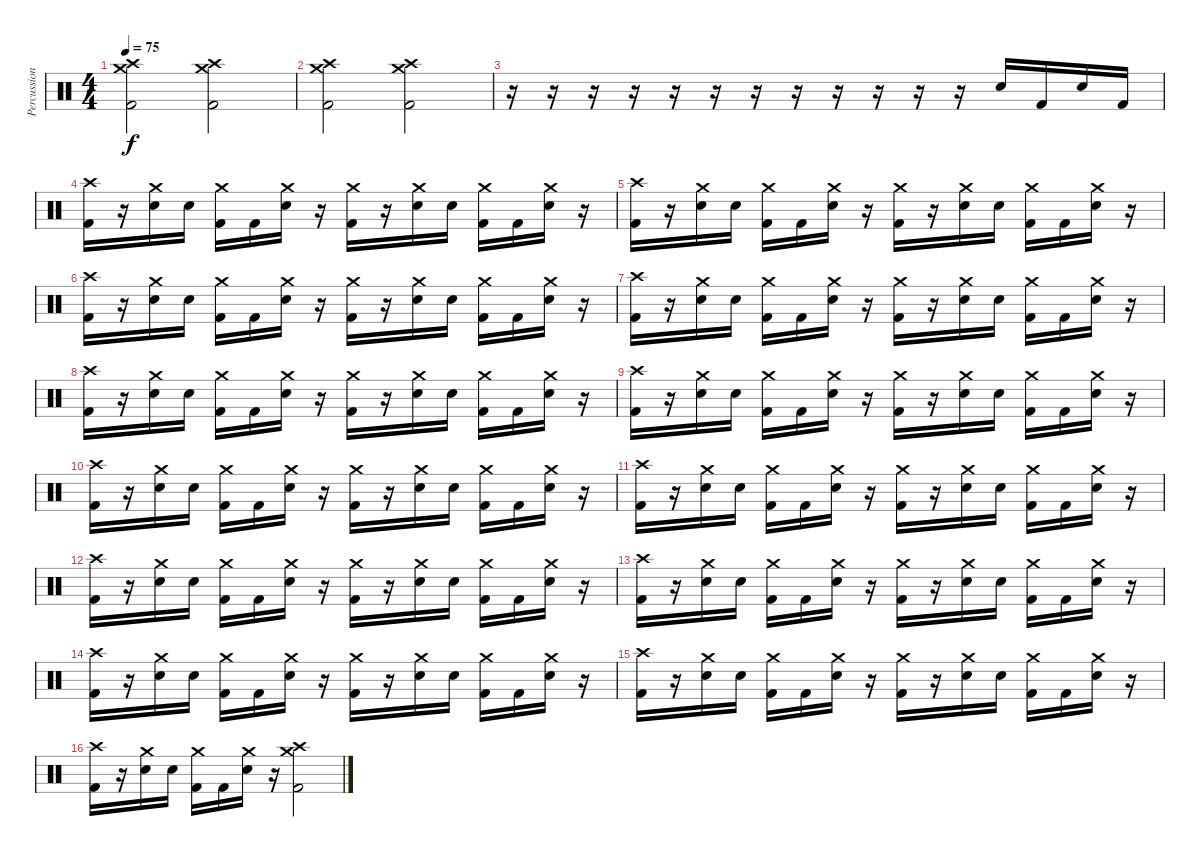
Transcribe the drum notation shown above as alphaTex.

\track ("Percussioni" "Percussion") {instrument percussion}
\staff {score}
\articulation defaults
\ts (4 4)
\tempo 75
\clef neutral
\ks c
("Kick (hit) 2" "Crash high (hit)" "Crash medium (hit)").2{dy f} ("Kick (hit) 2" "Crash high (hit)" "Crash medium (hit)").2 |
("Kick (hit) 2" "Crash high (hit)" "Crash medium (hit)").2 ("Kick (hit) 2" "Crash high (hit)" "Crash medium (hit)").2 |
r.16 r.16 r.16 r.16 r.16 r.16 r.16 r.16 r.16 r.16 r.16 r.16 "Electric Snare (hit)".16 "Kick (hit) 2".16 "Electric Snare (hit)".16 "Kick (hit) 2".16 |
("Crash high (hit)" "Kick (hit) 2").16 r.16 ("Crash medium (hit)" "Electric Snare (hit)").16 "Electric Snare (hit)".16 ("Crash medium (hit)" "Kick (hit) 2").16 "Kick (hit) 2".16 ("Crash medium (hit)" "Electric Snare (hit)").16 r.16 ("Crash medium (hit)" "Kick (hit) 2").16 r.16 ("Crash medium (hit)" "Electric Snare (hit)").16 "Electric Snare (hit)".16 ("Crash medium (hit)" "Kick (hit) 2").16 "Kick (hit) 2".16 ("Crash medium (hit)" "Electric Snare (hit)").16 r.16 |
("Crash high (hit)" "Kick (hit) 2").16 r.16 ("Crash medium (hit)" "Electric Snare (hit)").16 "Electric Snare (hit)".16 ("Crash medium (hit)" "Kick (hit) 2").16 "Kick (hit) 2".16 ("Crash medium (hit)" "Electric Snare (hit)").16 r.16 ("Crash medium (hit)" "Kick (hit) 2").16 r.16 ("Crash medium (hit)" "Electric Snare (hit)").16 "Electric Snare (hit)".16 ("Crash medium (hit)" "Kick (hit) 2").16 "Kick (hit) 2".16 ("Crash medium (hit)" "Electric Snare (hit)").16 r.16 |
("Crash high (hit)" "Kick (hit) 2").16 r.16 ("Crash medium (hit)" "Electric Snare (hit)").16 "Electric Snare (hit)".16 ("Crash medium (hit)" "Kick (hit) 2").16 "Kick (hit) 2".16 ("Crash medium (hit)" "Electric Snare (hit)").16 r.16 ("Crash medium (hit)" "Kick (hit) 2").16 r.16 ("Crash medium (hit)" "Electric Snare (hit)").16 "Electric Snare (hit)".16 ("Crash medium (hit)" "Kick (hit) 2").16 "Kick (hit) 2".16 ("Crash medium (hit)" "Electric Snare (hit)").16 r.16 |
("Crash high (hit)" "Kick (hit) 2").16 r.16 ("Crash medium (hit)" "Electric Snare (hit)").16 "Electric Snare (hit)".16 ("Crash medium (hit)" "Kick (hit) 2").16 "Kick (hit) 2".16 ("Crash medium (hit)" "Electric Snare (hit)").16 r.16 ("Crash medium (hit)" "Kick (hit) 2").16 r.16 ("Crash medium (hit)" "Electric Snare (hit)").16 "Electric Snare (hit)".16 ("Crash medium (hit)" "Kick (hit) 2").16 "Kick (hit) 2".16 ("Crash medium (hit)" "Electric Snare (hit)").16 r.16 |
("Crash high (hit)" "Kick (hit) 2").16 r.16 ("Crash medium (hit)" "Electric Snare (hit)").16 "Electric Snare (hit)".16 ("Crash medium (hit)" "Kick (hit) 2").16 "Kick (hit) 2".16 ("Crash medium (hit)" "Electric Snare (hit)").16 r.16 ("Crash medium (hit)" "Kick (hit) 2").16 r.16 ("Crash medium (hit)" "Electric Snare (hit)").16 "Electric Snare (hit)".16 ("Crash medium (hit)" "Kick (hit) 2").16 "Kick (hit) 2".16 ("Crash medium (hit)" "Electric Snare (hit)").16 r.16 |
("Crash high (hit)" "Kick (hit) 2").16 r.16 ("Crash medium (hit)" "Electric Snare (hit)").16 "Electric Snare (hit)".16 ("Crash medium (hit)" "Kick (hit) 2").16 "Kick (hit) 2".16 ("Crash medium (hit)" "Electric Snare (hit)").16 r.16 ("Crash medium (hit)" "Kick (hit) 2").16 r.16 ("Crash medium (hit)" "Electric Snare (hit)").16 "Electric Snare (hit)".16 ("Crash medium (hit)" "Kick (hit) 2").16 "Kick (hit) 2".16 ("Crash medium (hit)" "Electric Snare (hit)").16 r.16 |
("Crash high (hit)" "Kick (hit) 2").16 r.16 ("Crash medium (hit)" "Electric Snare (hit)").16 "Electric Snare (hit)".16 ("Crash medium (hit)" "Kick (hit) 2").16 "Kick (hit) 2".16 ("Crash medium (hit)" "Electric Snare (hit)").16 r.16 ("Crash medium (hit)" "Kick (hit) 2").16 r.16 ("Crash medium (hit)" "Electric Snare (hit)").16 "Electric Snare (hit)".16 ("Crash medium (hit)" "Kick (hit) 2").16 "Kick (hit) 2".16 ("Crash medium (hit)" "Electric Snare (hit)").16 r.16 |
("Crash high (hit)" "Kick (hit) 2").16 r.16 ("Crash medium (hit)" "Electric Snare (hit)").16 "Electric Snare (hit)".16 ("Crash medium (hit)" "Kick (hit) 2").16 "Kick (hit) 2".16 ("Crash medium (hit)" "Electric Snare (hit)").16 r.16 ("Crash medium (hit)" "Kick (hit) 2").16 r.16 ("Crash medium (hit)" "Electric Snare (hit)").16 "Electric Snare (hit)".16 ("Crash medium (hit)" "Kick (hit) 2").16 "Kick (hit) 2".16 ("Crash medium (hit)" "Electric Snare (hit)").16 r.16 |
("Crash high (hit)" "Kick (hit) 2").16 r.16 ("Crash medium (hit)" "Electric Snare (hit)").16 "Electric Snare (hit)".16 ("Crash medium (hit)" "Kick (hit) 2").16 "Kick (hit) 2".16 ("Crash medium (hit)" "Electric Snare (hit)").16 r.16 ("Crash medium (hit)" "Kick (hit) 2").16 r.16 ("Crash medium (hit)" "Electric Snare (hit)").16 "Electric Snare (hit)".16 ("Crash medium (hit)" "Kick (hit) 2").16 "Kick (hit) 2".16 ("Crash medium (hit)" "Electric Snare (hit)").16 r.16 |
("Crash high (hit)" "Kick (hit) 2").16 r.16 ("Crash medium (hit)" "Electric Snare (hit)").16 "Electric Snare (hit)".16 ("Crash medium (hit)" "Kick (hit) 2").16 "Kick (hit) 2".16 ("Crash medium (hit)" "Electric Snare (hit)").16 r.16 ("Crash medium (hit)" "Kick (hit) 2").16 r.16 ("Crash medium (hit)" "Electric Snare (hit)").16 "Electric Snare (hit)".16 ("Crash medium (hit)" "Kick (hit) 2").16 "Kick (hit) 2".16 ("Crash medium (hit)" "Electric Snare (hit)").16 r.16 |
("Crash high (hit)" "Kick (hit) 2").16 r.16 ("Crash medium (hit)" "Electric Snare (hit)").16 "Electric Snare (hit)".16 ("Crash medium (hit)" "Kick (hit) 2").16 "Kick (hit) 2".16 ("Crash medium (hit)" "Electric Snare (hit)").16 r.16 ("Crash medium (hit)" "Kick (hit) 2").16 r.16 ("Crash medium (hit)" "Electric Snare (hit)").16 "Electric Snare (hit)".16 ("Crash medium (hit)" "Kick (hit) 2").16 "Kick (hit) 2".16 ("Crash medium (hit)" "Electric Snare (hit)").16 r.16 |
("Crash high (hit)" "Kick (hit) 2").16 r.16 ("Crash medium (hit)" "Electric Snare (hit)").16 "Electric Snare (hit)".16 ("Crash medium (hit)" "Kick (hit) 2").16 "Kick (hit) 2".16 ("Crash medium (hit)" "Electric Snare (hit)").16 r.16 ("Crash medium (hit)" "Kick (hit) 2").16 r.16 ("Crash medium (hit)" "Electric Snare (hit)").16 "Electric Snare (hit)".16 ("Crash medium (hit)" "Kick (hit) 2").16 "Kick (hit) 2".16 ("Crash medium (hit)" "Electric Snare (hit)").16 r.16 |
("Crash high (hit)" "Kick (hit) 2").16 r.16 ("Crash medium (hit)" "Electric Snare (hit)").16 "Electric Snare (hit)".16 ("Crash medium (hit)" "Kick (hit) 2").16 "Kick (hit) 2".16 ("Crash medium (hit)" "Electric Snare (hit)").16 r.16 ("Crash high (hit)" "Crash medium (hit)" "Kick (hit) 2").2
